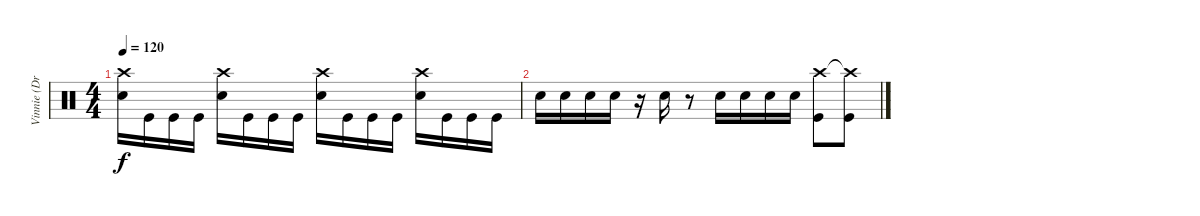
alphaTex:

\track ("Vinnie (Drums)" "Vinnie (Dr") {instrument percussion}
\staff {score}
\articulation defaults
\ts (4 4)
\tempo 120
\clef neutral
\ks c
("Crash high (hit)" "Snare (hit) 2").16{dy f} "Kick (hit)".16 "Kick (hit)".16 "Kick (hit)".16 ("Crash high (hit)" "Snare (hit) 2").16 "Kick (hit)".16 "Kick (hit)".16 "Kick (hit)".16 ("Crash high (hit)" "Snare (hit) 2").16 "Kick (hit)".16 "Kick (hit)".16 "Kick (hit)".16 ("Crash high (hit)" "Snare (hit) 2").16 "Kick (hit)".16 "Kick (hit)".16 "Kick (hit)".16 |
"Snare (hit) 2".16 "Snare (hit) 2".16 "Snare (hit) 2".16 "Snare (hit) 2".16 r.16 "Snare (hit) 2".16 r.8 "Snare (hit) 2".16 "Snare (hit) 2".16 "Snare (hit) 2".16 "Snare (hit) 2".16 ("Crash high (hit)" "Kick (hit)").8 ("Crash high (hit)"{t} "Kick (hit)").8
